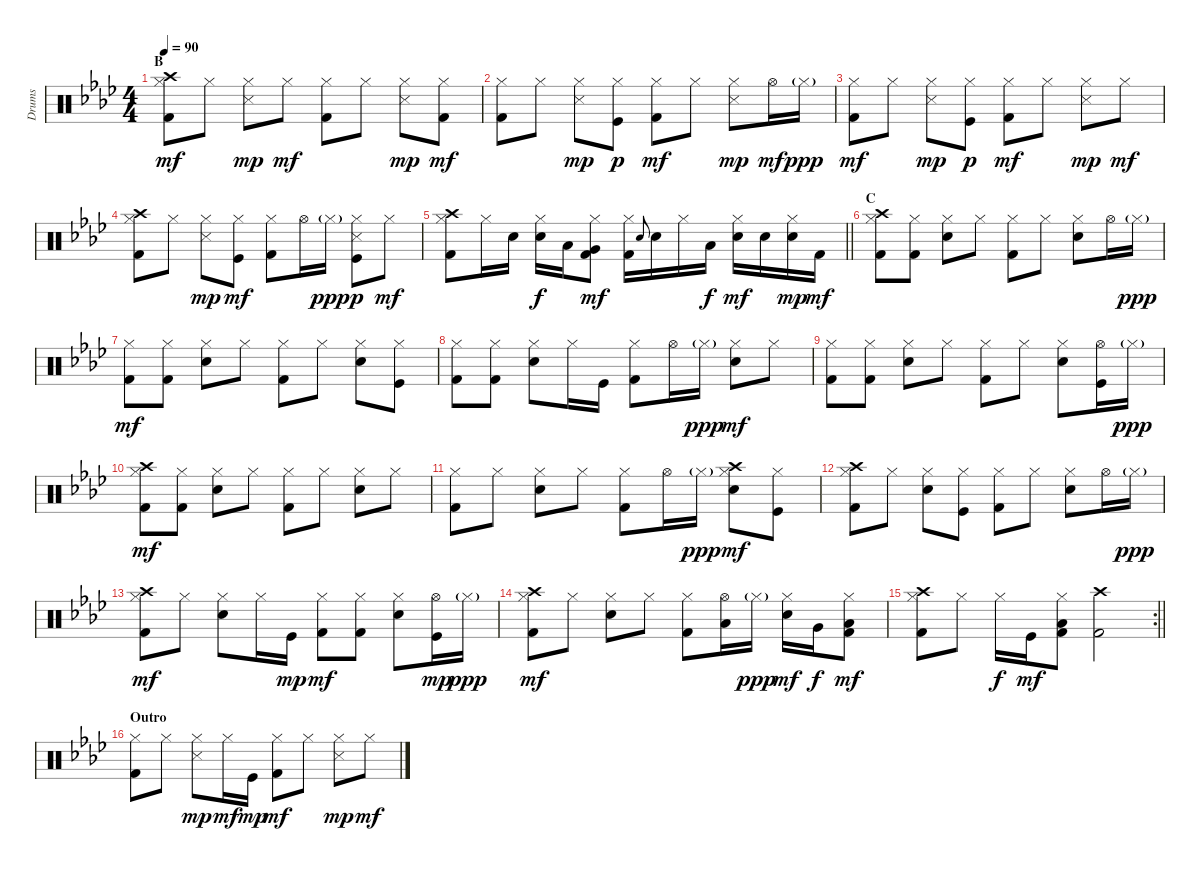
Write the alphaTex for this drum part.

\track ("Drums" "Drums") {instrument percussion}
\staff {score}
\articulation defaults
\ts (4 4)
\section ("" "B")
\tempo 90
\clef neutral
\ks ab
("Crash high (hit)" "Hi-Hat (closed)" "Kick (hit) 2").8{dy mf} "Hi-Hat (closed)".8 ("Hi-Hat (closed)" "Snare (side stick) 3").8{dy mp} "Hi-Hat (closed)".8{dy mf} ("Hi-Hat (closed)" "Kick (hit) 2").8 "Hi-Hat (closed)".8 ("Hi-Hat (closed)" "Snare (side stick) 3").8{dy mp} ("Hi-Hat (closed)" "Kick (hit) 2").8{dy mf} |
("Hi-Hat (closed)" "Kick (hit) 2").8 "Hi-Hat (closed)".8 ("Hi-Hat (closed)" "Snare (side stick) 3").8{dy mp} ("Hi-Hat (closed)" "Kick (hit)").8{dy p} ("Hi-Hat (closed)" "Kick (hit) 2").8{dy mf} "Hi-Hat (closed)".8 ("Hi-Hat (closed)" "Snare (side stick) 3").8{dy mp} "Hi-Hat (open)".16{dy mf} "Hi-Hat (closed)"{g}.16{dy ppp} |
("Hi-Hat (closed)" "Kick (hit) 2").8{dy mf} "Hi-Hat (closed)".8 ("Hi-Hat (closed)" "Snare (side stick) 3").8{dy mp} ("Hi-Hat (closed)" "Kick (hit)").8{dy p} ("Hi-Hat (closed)" "Kick (hit) 2").8{dy mf} "Hi-Hat (closed)".8 ("Hi-Hat (closed)" "Snare (side stick) 3").8{dy mp} "Hi-Hat (closed)".8{dy mf} |
("Crash high (hit)" "Hi-Hat (closed)" "Kick (hit) 2").8 "Hi-Hat (closed)".8 ("Hi-Hat (closed)" "Snare (side stick) 3").8{dy mp} ("Hi-Hat (closed)" "Kick (hit)").8{dy mf} ("Hi-Hat (closed)" "Kick (hit) 2").8 "Hi-Hat (open)".16 "Hi-Hat (closed)"{g}.16{dy ppp} ("Hi-Hat (closed)" "Snare (side stick) 3" "Kick (hit)").8{dy p} "Hi-Hat (closed)".8{dy mf} |
\barLineRight lightlight
("Crash high (hit)" "Hi-Hat (closed)" "Kick (hit) 2").8 "Hi-Hat (closed)".16 "Snare (hit) 2".16 ("Hi-Hat (closed)" "Snare (hit) 2").16{dy f} "Low Tom (hit)".16 ("Hi-Hat (closed)" "Very Low Tom (hit)" "Kick (hit) 2").8{dy mf} ("Hi-Hat (closed)" "Kick (hit) 2").16 "Snare (hit) 2".8{gr onbeat} "Snare (hit) 2".16 "Hi-Hat (closed)".16 "Low Floor Tom (hit)".16{dy f} ("Hi-Hat (closed)" "Snare (hit) 2").16{dy mf} "Snare (hit) 2".16 ("Hi-Hat (closed)" "Snare (hit) 2").16{dy mp} "Kick (hit) 2".16{dy mf} |
\section ("" "C")
("Crash high (hit)" "Hi-Hat (closed)" "Kick (hit) 2").8 ("Hi-Hat (closed)" "Kick (hit) 2").8 ("Hi-Hat (closed)" "Snare (hit) 2").8 "Hi-Hat (closed)".8 ("Hi-Hat (closed)" "Kick (hit) 2").8 "Hi-Hat (closed)".8 ("Hi-Hat (closed)" "Snare (hit) 2").8 "Hi-Hat (open)".16 "Hi-Hat (closed)"{g}.16{dy ppp} |
("Hi-Hat (closed)" "Kick (hit) 2").8{dy mf} ("Hi-Hat (closed)" "Kick (hit) 2").8 ("Hi-Hat (closed)" "Snare (hit) 2").8 "Hi-Hat (closed)".8 ("Hi-Hat (closed)" "Kick (hit) 2").8 "Hi-Hat (closed)".8 ("Hi-Hat (closed)" "Snare (hit) 2").8 ("Hi-Hat (closed)" "Kick (hit)").8 |
("Hi-Hat (closed)" "Kick (hit) 2").8 ("Hi-Hat (closed)" "Kick (hit) 2").8 ("Hi-Hat (closed)" "Snare (hit) 2").8 "Hi-Hat (closed)".16 "Kick (hit)".16 ("Hi-Hat (closed)" "Kick (hit) 2").8 "Hi-Hat (open)".16 "Hi-Hat (closed)"{g}.16{dy ppp} ("Hi-Hat (closed)" "Snare (hit) 2").8{dy mf} "Hi-Hat (closed)".8 |
("Hi-Hat (closed)" "Kick (hit) 2").8 ("Hi-Hat (closed)" "Kick (hit) 2").8 ("Hi-Hat (closed)" "Snare (hit) 2").8 "Hi-Hat (closed)".8 ("Hi-Hat (closed)" "Kick (hit) 2").8 "Hi-Hat (closed)".8 ("Hi-Hat (closed)" "Snare (hit) 2").8 ("Hi-Hat (open)" "Kick (hit)").16 "Hi-Hat (closed)"{g}.16{dy ppp} |
("Crash high (hit)" "Hi-Hat (closed)" "Kick (hit) 2").8{dy mf} ("Hi-Hat (closed)" "Kick (hit) 2").8 ("Hi-Hat (closed)" "Snare (hit) 2").8 "Hi-Hat (closed)".8 ("Hi-Hat (closed)" "Kick (hit) 2").8 "Hi-Hat (closed)".8 ("Hi-Hat (closed)" "Snare (hit) 2").8 "Hi-Hat (closed)".8 |
("Hi-Hat (closed)" "Kick (hit) 2").8 "Hi-Hat (closed)".8 ("Hi-Hat (closed)" "Snare (hit) 2").8 "Hi-Hat (closed)".8 ("Hi-Hat (closed)" "Kick (hit) 2").8 "Hi-Hat (open)".16 "Hi-Hat (closed)"{g}.16{dy ppp} ("Crash high (hit)" "Hi-Hat (closed)" "Snare (hit) 2").8{dy mf} ("Hi-Hat (closed)" "Kick (hit)").8 |
("Crash high (hit)" "Hi-Hat (closed)" "Kick (hit) 2").8 "Hi-Hat (closed)".8 ("Hi-Hat (closed)" "Snare (hit) 2").8 ("Hi-Hat (closed)" "Kick (hit)").8 ("Hi-Hat (closed)" "Kick (hit) 2").8 "Hi-Hat (closed)".8 ("Hi-Hat (closed)" "Snare (hit) 2").8 "Hi-Hat (open)".16 "Hi-Hat (closed)"{g}.16{dy ppp} |
("Crash high (hit)" "Hi-Hat (closed)" "Kick (hit) 2").8{dy mf} "Hi-Hat (closed)".8 ("Hi-Hat (closed)" "Snare (hit) 2").8 "Hi-Hat (closed)".16 "Kick (hit)".16{dy mp} ("Hi-Hat (closed)" "Kick (hit) 2").8{dy mf} ("Hi-Hat (closed)" "Kick (hit) 2").8 ("Hi-Hat (closed)" "Snare (hit) 2").8 ("Hi-Hat (open)" "Kick (hit)").16{dy mp} "Hi-Hat (closed)"{g}.16{dy ppp} |
("Crash high (hit)" "Hi-Hat (closed)" "Kick (hit) 2").8{dy mf} "Hi-Hat (closed)".8 ("Hi-Hat (closed)" "Snare (hit) 2").8 "Hi-Hat (closed)".8 ("Hi-Hat (closed)" "Kick (hit) 2").8 ("Hi-Hat (open)" "Low Tom (hit)").16 "Hi-Hat (closed)"{g}.16{dy ppp} ("Hi-Hat (closed)" "Snare (hit) 2").16{dy mf} "Very Low Tom (hit)".16{dy f} ("Hi-Hat (closed)" "Low Floor Tom (hit)" "Kick (hit) 2").8{dy mf} |
\rc 2
\barLineRight lightlight
("Crash high (hit)" "Hi-Hat (closed)" "Kick (hit) 2").8 "Hi-Hat (closed)".8 "Hi-Hat (closed)".16{dy f} "Kick (hit)".16{dy mf} ("Hi-Hat (closed)" "Low Floor Tom (hit)" "Kick (hit) 2").8 ("Crash high (hit)" "Kick (hit) 2").2 |
\section ("" "Outro")
("Hi-Hat (closed)" "Kick (hit) 2").8 "Hi-Hat (closed)".8 ("Hi-Hat (closed)" "Snare (side stick) 3").8{dy mp} "Hi-Hat (closed)".16{dy mf} "Kick (hit)".16{dy mp} ("Hi-Hat (closed)" "Kick (hit) 2").8{dy mf} "Hi-Hat (closed)".8 ("Hi-Hat (closed)" "Snare (side stick) 3").8{dy mp} "Hi-Hat (closed)".8{dy mf}
